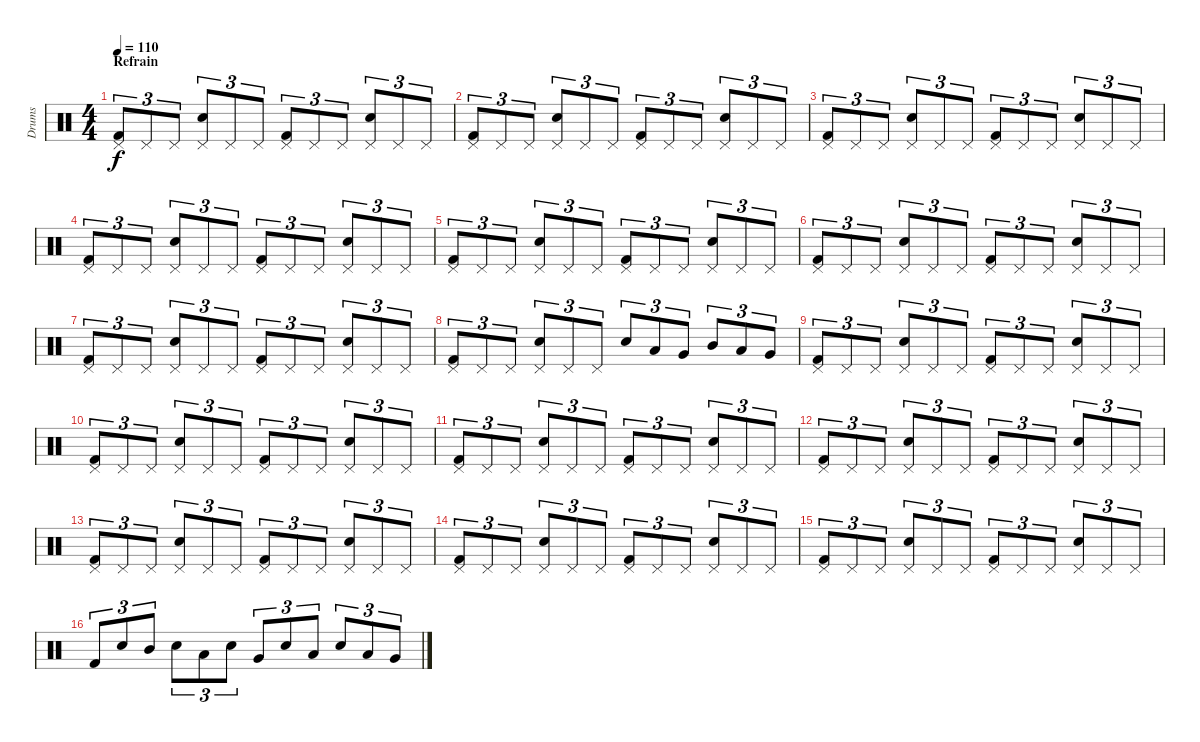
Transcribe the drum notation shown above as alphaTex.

\track ("Drums" "Drums") {instrument percussion}
\staff {score}
\articulation defaults
\ts (4 4)
\section ("" "Refrain")
\tempo 110
\clef neutral
\ks c
("Pedal Hi-Hat (hit)" "Kick (hit) 2").8{tu (3 2) dy f} "Pedal Hi-Hat (hit)".8{tu (3 2)} "Pedal Hi-Hat (hit)".8{tu (3 2)} ("Pedal Hi-Hat (hit)" "Electric Snare (hit)").8{tu (3 2)} "Pedal Hi-Hat (hit)".8{tu (3 2)} "Pedal Hi-Hat (hit)".8{tu (3 2)} ("Pedal Hi-Hat (hit)" "Kick (hit) 2").8{tu (3 2)} "Pedal Hi-Hat (hit)".8{tu (3 2)} "Pedal Hi-Hat (hit)".8{tu (3 2)} ("Pedal Hi-Hat (hit)" "Electric Snare (hit)").8{tu (3 2)} "Pedal Hi-Hat (hit)".8{tu (3 2)} "Pedal Hi-Hat (hit)".8{tu (3 2)} |
("Pedal Hi-Hat (hit)" "Kick (hit) 2").8{tu (3 2)} "Pedal Hi-Hat (hit)".8{tu (3 2)} "Pedal Hi-Hat (hit)".8{tu (3 2)} ("Pedal Hi-Hat (hit)" "Electric Snare (hit)").8{tu (3 2)} "Pedal Hi-Hat (hit)".8{tu (3 2)} "Pedal Hi-Hat (hit)".8{tu (3 2)} ("Pedal Hi-Hat (hit)" "Kick (hit) 2").8{tu (3 2)} "Pedal Hi-Hat (hit)".8{tu (3 2)} "Pedal Hi-Hat (hit)".8{tu (3 2)} ("Pedal Hi-Hat (hit)" "Electric Snare (hit)").8{tu (3 2)} "Pedal Hi-Hat (hit)".8{tu (3 2)} "Pedal Hi-Hat (hit)".8{tu (3 2)} |
("Pedal Hi-Hat (hit)" "Kick (hit) 2").8{tu (3 2)} "Pedal Hi-Hat (hit)".8{tu (3 2)} "Pedal Hi-Hat (hit)".8{tu (3 2)} ("Pedal Hi-Hat (hit)" "Electric Snare (hit)").8{tu (3 2)} "Pedal Hi-Hat (hit)".8{tu (3 2)} "Pedal Hi-Hat (hit)".8{tu (3 2)} ("Pedal Hi-Hat (hit)" "Kick (hit) 2").8{tu (3 2)} "Pedal Hi-Hat (hit)".8{tu (3 2)} "Pedal Hi-Hat (hit)".8{tu (3 2)} ("Pedal Hi-Hat (hit)" "Electric Snare (hit)").8{tu (3 2)} "Pedal Hi-Hat (hit)".8{tu (3 2)} "Pedal Hi-Hat (hit)".8{tu (3 2)} |
("Pedal Hi-Hat (hit)" "Kick (hit) 2").8{tu (3 2)} "Pedal Hi-Hat (hit)".8{tu (3 2)} "Pedal Hi-Hat (hit)".8{tu (3 2)} ("Pedal Hi-Hat (hit)" "Electric Snare (hit)").8{tu (3 2)} "Pedal Hi-Hat (hit)".8{tu (3 2)} "Pedal Hi-Hat (hit)".8{tu (3 2)} ("Pedal Hi-Hat (hit)" "Kick (hit) 2").8{tu (3 2)} "Pedal Hi-Hat (hit)".8{tu (3 2)} "Pedal Hi-Hat (hit)".8{tu (3 2)} ("Pedal Hi-Hat (hit)" "Electric Snare (hit)").8{tu (3 2)} "Pedal Hi-Hat (hit)".8{tu (3 2)} "Pedal Hi-Hat (hit)".8{tu (3 2)} |
("Pedal Hi-Hat (hit)" "Kick (hit) 2").8{tu (3 2)} "Pedal Hi-Hat (hit)".8{tu (3 2)} "Pedal Hi-Hat (hit)".8{tu (3 2)} ("Pedal Hi-Hat (hit)" "Electric Snare (hit)").8{tu (3 2)} "Pedal Hi-Hat (hit)".8{tu (3 2)} "Pedal Hi-Hat (hit)".8{tu (3 2)} ("Pedal Hi-Hat (hit)" "Kick (hit) 2").8{tu (3 2)} "Pedal Hi-Hat (hit)".8{tu (3 2)} "Pedal Hi-Hat (hit)".8{tu (3 2)} ("Pedal Hi-Hat (hit)" "Electric Snare (hit)").8{tu (3 2)} "Pedal Hi-Hat (hit)".8{tu (3 2)} "Pedal Hi-Hat (hit)".8{tu (3 2)} |
("Pedal Hi-Hat (hit)" "Kick (hit) 2").8{tu (3 2)} "Pedal Hi-Hat (hit)".8{tu (3 2)} "Pedal Hi-Hat (hit)".8{tu (3 2)} ("Pedal Hi-Hat (hit)" "Electric Snare (hit)").8{tu (3 2)} "Pedal Hi-Hat (hit)".8{tu (3 2)} "Pedal Hi-Hat (hit)".8{tu (3 2)} ("Pedal Hi-Hat (hit)" "Kick (hit) 2").8{tu (3 2)} "Pedal Hi-Hat (hit)".8{tu (3 2)} "Pedal Hi-Hat (hit)".8{tu (3 2)} ("Pedal Hi-Hat (hit)" "Electric Snare (hit)").8{tu (3 2)} "Pedal Hi-Hat (hit)".8{tu (3 2)} "Pedal Hi-Hat (hit)".8{tu (3 2)} |
("Pedal Hi-Hat (hit)" "Kick (hit) 2").8{tu (3 2)} "Pedal Hi-Hat (hit)".8{tu (3 2)} "Pedal Hi-Hat (hit)".8{tu (3 2)} ("Pedal Hi-Hat (hit)" "Electric Snare (hit)").8{tu (3 2)} "Pedal Hi-Hat (hit)".8{tu (3 2)} "Pedal Hi-Hat (hit)".8{tu (3 2)} ("Pedal Hi-Hat (hit)" "Kick (hit) 2").8{tu (3 2)} "Pedal Hi-Hat (hit)".8{tu (3 2)} "Pedal Hi-Hat (hit)".8{tu (3 2)} ("Pedal Hi-Hat (hit)" "Electric Snare (hit)").8{tu (3 2)} "Pedal Hi-Hat (hit)".8{tu (3 2)} "Pedal Hi-Hat (hit)".8{tu (3 2)} |
("Pedal Hi-Hat (hit)" "Kick (hit) 2").8{tu (3 2)} "Pedal Hi-Hat (hit)".8{tu (3 2)} "Pedal Hi-Hat (hit)".8{tu (3 2)} ("Pedal Hi-Hat (hit)" "Electric Snare (hit)").8{tu (3 2)} "Pedal Hi-Hat (hit)".8{tu (3 2)} "Pedal Hi-Hat (hit)".8{tu (3 2)} "Electric Snare (hit)".8{tu (3 2)} "Low Tom (hit)".8{tu (3 2)} "Very Low Tom (hit)".8{tu (3 2)} "Mid Tom (hit)".8{tu (3 2)} "Low Tom (hit)".8{tu (3 2)} "Very Low Tom (hit)".8{tu (3 2)} |
("Pedal Hi-Hat (hit)" "Kick (hit) 2").8{tu (3 2)} "Pedal Hi-Hat (hit)".8{tu (3 2)} "Pedal Hi-Hat (hit)".8{tu (3 2)} ("Pedal Hi-Hat (hit)" "Electric Snare (hit)").8{tu (3 2)} "Pedal Hi-Hat (hit)".8{tu (3 2)} "Pedal Hi-Hat (hit)".8{tu (3 2)} ("Pedal Hi-Hat (hit)" "Kick (hit) 2").8{tu (3 2)} "Pedal Hi-Hat (hit)".8{tu (3 2)} "Pedal Hi-Hat (hit)".8{tu (3 2)} ("Pedal Hi-Hat (hit)" "Electric Snare (hit)").8{tu (3 2)} "Pedal Hi-Hat (hit)".8{tu (3 2)} "Pedal Hi-Hat (hit)".8{tu (3 2)} |
("Pedal Hi-Hat (hit)" "Kick (hit) 2").8{tu (3 2)} "Pedal Hi-Hat (hit)".8{tu (3 2)} "Pedal Hi-Hat (hit)".8{tu (3 2)} ("Pedal Hi-Hat (hit)" "Electric Snare (hit)").8{tu (3 2)} "Pedal Hi-Hat (hit)".8{tu (3 2)} "Pedal Hi-Hat (hit)".8{tu (3 2)} ("Pedal Hi-Hat (hit)" "Kick (hit) 2").8{tu (3 2)} "Pedal Hi-Hat (hit)".8{tu (3 2)} "Pedal Hi-Hat (hit)".8{tu (3 2)} ("Pedal Hi-Hat (hit)" "Electric Snare (hit)").8{tu (3 2)} "Pedal Hi-Hat (hit)".8{tu (3 2)} "Pedal Hi-Hat (hit)".8{tu (3 2)} |
("Pedal Hi-Hat (hit)" "Kick (hit) 2").8{tu (3 2)} "Pedal Hi-Hat (hit)".8{tu (3 2)} "Pedal Hi-Hat (hit)".8{tu (3 2)} ("Pedal Hi-Hat (hit)" "Electric Snare (hit)").8{tu (3 2)} "Pedal Hi-Hat (hit)".8{tu (3 2)} "Pedal Hi-Hat (hit)".8{tu (3 2)} ("Pedal Hi-Hat (hit)" "Kick (hit) 2").8{tu (3 2)} "Pedal Hi-Hat (hit)".8{tu (3 2)} "Pedal Hi-Hat (hit)".8{tu (3 2)} ("Pedal Hi-Hat (hit)" "Electric Snare (hit)").8{tu (3 2)} "Pedal Hi-Hat (hit)".8{tu (3 2)} "Pedal Hi-Hat (hit)".8{tu (3 2)} |
("Pedal Hi-Hat (hit)" "Kick (hit) 2").8{tu (3 2)} "Pedal Hi-Hat (hit)".8{tu (3 2)} "Pedal Hi-Hat (hit)".8{tu (3 2)} ("Pedal Hi-Hat (hit)" "Electric Snare (hit)").8{tu (3 2)} "Pedal Hi-Hat (hit)".8{tu (3 2)} "Pedal Hi-Hat (hit)".8{tu (3 2)} ("Pedal Hi-Hat (hit)" "Kick (hit) 2").8{tu (3 2)} "Pedal Hi-Hat (hit)".8{tu (3 2)} "Pedal Hi-Hat (hit)".8{tu (3 2)} ("Pedal Hi-Hat (hit)" "Electric Snare (hit)").8{tu (3 2)} "Pedal Hi-Hat (hit)".8{tu (3 2)} "Pedal Hi-Hat (hit)".8{tu (3 2)} |
("Pedal Hi-Hat (hit)" "Kick (hit) 2").8{tu (3 2)} "Pedal Hi-Hat (hit)".8{tu (3 2)} "Pedal Hi-Hat (hit)".8{tu (3 2)} ("Pedal Hi-Hat (hit)" "Electric Snare (hit)").8{tu (3 2)} "Pedal Hi-Hat (hit)".8{tu (3 2)} "Pedal Hi-Hat (hit)".8{tu (3 2)} ("Pedal Hi-Hat (hit)" "Kick (hit) 2").8{tu (3 2)} "Pedal Hi-Hat (hit)".8{tu (3 2)} "Pedal Hi-Hat (hit)".8{tu (3 2)} ("Pedal Hi-Hat (hit)" "Electric Snare (hit)").8{tu (3 2)} "Pedal Hi-Hat (hit)".8{tu (3 2)} "Pedal Hi-Hat (hit)".8{tu (3 2)} |
("Pedal Hi-Hat (hit)" "Kick (hit) 2").8{tu (3 2)} "Pedal Hi-Hat (hit)".8{tu (3 2)} "Pedal Hi-Hat (hit)".8{tu (3 2)} ("Pedal Hi-Hat (hit)" "Electric Snare (hit)").8{tu (3 2)} "Pedal Hi-Hat (hit)".8{tu (3 2)} "Pedal Hi-Hat (hit)".8{tu (3 2)} ("Pedal Hi-Hat (hit)" "Kick (hit) 2").8{tu (3 2)} "Pedal Hi-Hat (hit)".8{tu (3 2)} "Pedal Hi-Hat (hit)".8{tu (3 2)} ("Pedal Hi-Hat (hit)" "Electric Snare (hit)").8{tu (3 2)} "Pedal Hi-Hat (hit)".8{tu (3 2)} "Pedal Hi-Hat (hit)".8{tu (3 2)} |
("Pedal Hi-Hat (hit)" "Kick (hit) 2").8{tu (3 2)} "Pedal Hi-Hat (hit)".8{tu (3 2)} "Pedal Hi-Hat (hit)".8{tu (3 2)} ("Pedal Hi-Hat (hit)" "Electric Snare (hit)").8{tu (3 2)} "Pedal Hi-Hat (hit)".8{tu (3 2)} "Pedal Hi-Hat (hit)".8{tu (3 2)} ("Pedal Hi-Hat (hit)" "Kick (hit) 2").8{tu (3 2)} "Pedal Hi-Hat (hit)".8{tu (3 2)} "Pedal Hi-Hat (hit)".8{tu (3 2)} ("Pedal Hi-Hat (hit)" "Electric Snare (hit)").8{tu (3 2)} "Pedal Hi-Hat (hit)".8{tu (3 2)} "Pedal Hi-Hat (hit)".8{tu (3 2)} |
"Kick (hit) 2".8{tu (3 2)} "Electric Snare (hit)".8{tu (3 2)} "Mid Tom (hit)".8{tu (3 2)} "Electric Snare (hit)".8{tu (3 2)} "Low Tom (hit)".8{tu (3 2)} "Snare (hit) 2".8{tu (3 2)} "Very Low Tom (hit)".8{tu (3 2)} "Snare (hit) 2".8{tu (3 2)} "Low Floor Tom (hit)".8{tu (3 2)} "Electric Snare (hit)".8{tu (3 2)} "Low Tom (hit)".8{tu (3 2)} "Very Low Tom (hit)".8{tu (3 2)}
